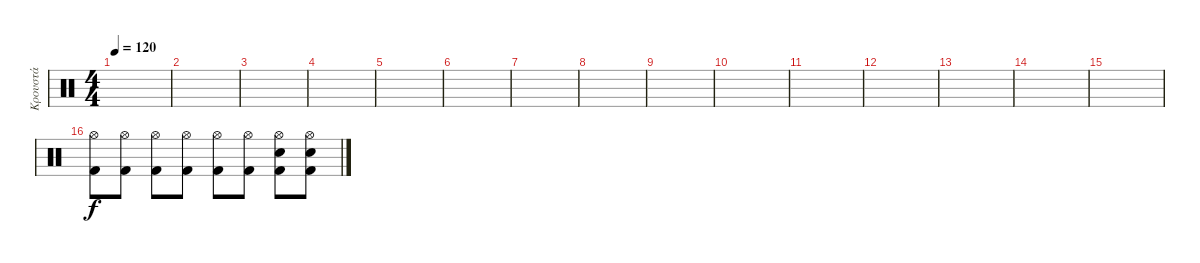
\track ("Κρουστά" "Κρουστά") {instrument percussion}
\staff {score}
\articulation defaults
\ts (4 4)
\tempo 120
\clef neutral
\ks c
|
|
|
|
|
|
|
|
|
|
|
|
|
|
|
("Hi-Hat (open)" "Kick (hit) 2").8 ("Hi-Hat (open)" "Kick (hit) 2").8 ("Hi-Hat (open)" "Kick (hit) 2").8 ("Hi-Hat (open)" "Kick (hit) 2").8 ("Hi-Hat (open)" "Kick (hit) 2").8 ("Hi-Hat (open)" "Kick (hit) 2").8 ("Hi-Hat (open)" "Electric Snare (hit)" "Kick (hit) 2").8 ("Hi-Hat (open)" "Electric Snare (hit)" "Kick (hit) 2").8
